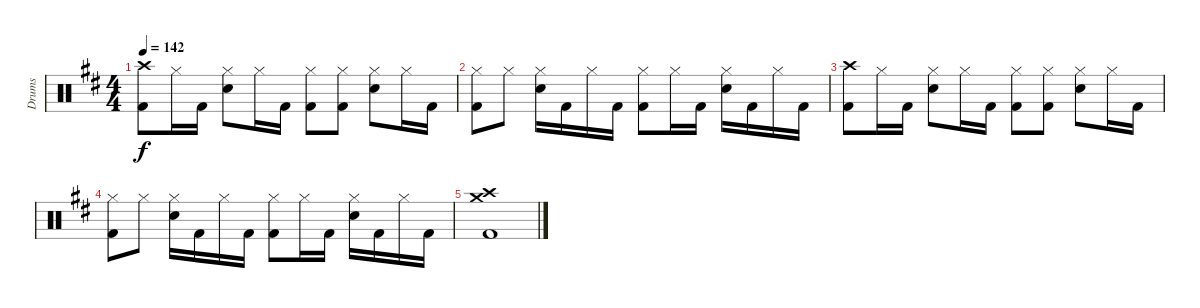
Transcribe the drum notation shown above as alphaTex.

\track ("Drums" "Drums") {instrument percussion}
\staff {score}
\articulation defaults
\ts (4 4)
\tempo 142
\clef neutral
\ks bminor
("Crash high (hit)" "Kick (hit) 2").8{dy f} "Hi-Hat (closed)".16 "Kick (hit) 2".16 ("Hi-Hat (closed)" "Electric Snare (hit)").8 "Hi-Hat (closed)".16 "Kick (hit) 2".16 ("Hi-Hat (closed)" "Kick (hit) 2").8 ("Hi-Hat (closed)" "Kick (hit) 2").8 ("Hi-Hat (closed)" "Electric Snare (hit)").8 "Hi-Hat (closed)".16 "Kick (hit) 2".16 |
("Hi-Hat (closed)" "Kick (hit) 2").8 "Hi-Hat (closed)".8 ("Hi-Hat (closed)" "Electric Snare (hit)").16 "Kick (hit) 2".16 "Hi-Hat (closed)".16 "Kick (hit) 2".16 ("Hi-Hat (closed)" "Kick (hit) 2").8 "Hi-Hat (closed)".16 "Kick (hit) 2".16 ("Hi-Hat (closed)" "Electric Snare (hit)").16 "Kick (hit) 2".16 "Hi-Hat (closed)".16 "Kick (hit) 2".16 |
("Crash high (hit)" "Kick (hit) 2").8 "Hi-Hat (closed)".16 "Kick (hit) 2".16 ("Hi-Hat (closed)" "Electric Snare (hit)").8 "Hi-Hat (closed)".16 "Kick (hit) 2".16 ("Hi-Hat (closed)" "Kick (hit) 2").8 ("Hi-Hat (closed)" "Kick (hit) 2").8 ("Hi-Hat (closed)" "Electric Snare (hit)").8 "Hi-Hat (closed)".16 "Kick (hit) 2".16 |
("Hi-Hat (closed)" "Kick (hit) 2").8 "Hi-Hat (closed)".8 ("Hi-Hat (closed)" "Electric Snare (hit)").16 "Kick (hit) 2".16 "Hi-Hat (closed)".16 "Kick (hit) 2".16 ("Hi-Hat (closed)" "Kick (hit) 2").8 "Hi-Hat (closed)".16 "Kick (hit) 2".16 ("Hi-Hat (closed)" "Electric Snare (hit)").16 "Kick (hit) 2".16 "Hi-Hat (closed)".16 "Kick (hit) 2".16 |
("Crash medium (hit)" "Crash high (hit)" "Kick (hit) 2").1
